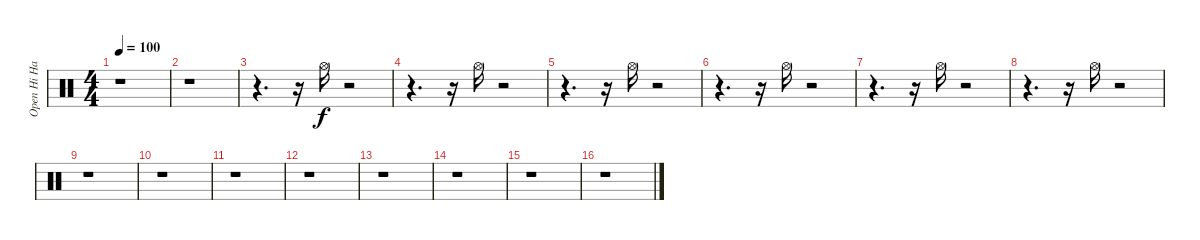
\track ("Open Hi Hat" "Open Hi Ha") {instrument percussion}
\staff {score}
\articulation defaults
\ts (4 4)
\tempo 100
\clef neutral
\ks c
r.1{dy f} |
r.1 |
r.4{d} r.16 "Hi-Hat (open)".16 r.2 |
r.4{d} r.16 "Hi-Hat (open)".16 r.2 |
r.4{d} r.16 "Hi-Hat (open)".16 r.2 |
r.4{d} r.16 "Hi-Hat (open)".16 r.2 |
r.4{d} r.16 "Hi-Hat (open)".16 r.2 |
r.4{d} r.16 "Hi-Hat (open)".16 r.2 |
r.1 |
r.1 |
r.1 |
r.1 |
r.1 |
r.1 |
r.1 |
r.1
